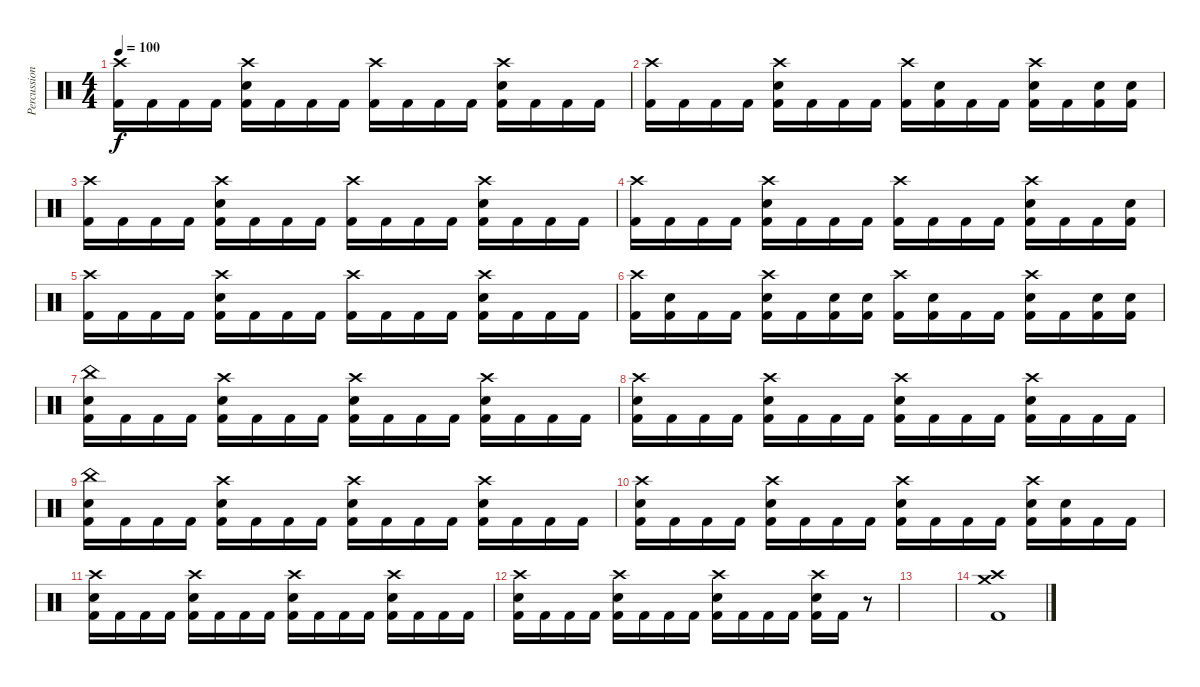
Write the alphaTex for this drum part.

\track ("Percussion" "Percussion") {instrument percussion}
\staff {score}
\articulation defaults
\ts (4 4)
\tempo 100
\clef neutral
\ks c
("Crash high (hit)" "Kick (hit) 2").16{dy f} "Kick (hit) 2".16 "Kick (hit) 2".16 "Kick (hit) 2".16 ("Crash high (hit)" "Electric Snare (hit)" "Kick (hit) 2").16 "Kick (hit) 2".16 "Kick (hit) 2".16 "Kick (hit) 2".16 ("Crash high (hit)" "Kick (hit) 2").16 "Kick (hit) 2".16 "Kick (hit) 2".16 "Kick (hit) 2".16 ("Crash high (hit)" "Electric Snare (hit)" "Kick (hit) 2").16 "Kick (hit) 2".16 "Kick (hit) 2".16 "Kick (hit) 2".16 |
("Crash high (hit)" "Kick (hit) 2").16 "Kick (hit) 2".16 "Kick (hit) 2".16 "Kick (hit) 2".16 ("Crash high (hit)" "Electric Snare (hit)" "Kick (hit) 2").16 "Kick (hit) 2".16 "Kick (hit) 2".16 "Kick (hit) 2".16 ("Crash high (hit)" "Kick (hit) 2").16 ("Electric Snare (hit)" "Kick (hit) 2").16 "Kick (hit) 2".16 "Kick (hit) 2".16 ("Crash high (hit)" "Electric Snare (hit)" "Kick (hit) 2").16 "Kick (hit) 2".16 ("Electric Snare (hit)" "Kick (hit) 2").16 ("Electric Snare (hit)" "Kick (hit) 2").16 |
("Crash high (hit)" "Kick (hit) 2").16 "Kick (hit) 2".16 "Kick (hit) 2".16 "Kick (hit) 2".16 ("Crash high (hit)" "Electric Snare (hit)" "Kick (hit) 2").16 "Kick (hit) 2".16 "Kick (hit) 2".16 "Kick (hit) 2".16 ("Crash high (hit)" "Kick (hit) 2").16 "Kick (hit) 2".16 "Kick (hit) 2".16 "Kick (hit) 2".16 ("Crash high (hit)" "Electric Snare (hit)" "Kick (hit) 2").16 "Kick (hit) 2".16 "Kick (hit) 2".16 "Kick (hit) 2".16 |
("Crash high (hit)" "Kick (hit) 2").16 "Kick (hit) 2".16 "Kick (hit) 2".16 "Kick (hit) 2".16 ("Crash high (hit)" "Electric Snare (hit)" "Kick (hit) 2").16 "Kick (hit) 2".16 "Kick (hit) 2".16 "Kick (hit) 2".16 ("Crash high (hit)" "Kick (hit) 2").16 "Kick (hit) 2".16 "Kick (hit) 2".16 "Kick (hit) 2".16 ("Crash high (hit)" "Electric Snare (hit)" "Kick (hit) 2").16 "Kick (hit) 2".16 "Kick (hit) 2".16 ("Electric Snare (hit)" "Kick (hit) 2").16 |
("Crash high (hit)" "Kick (hit) 2").16 "Kick (hit) 2".16 "Kick (hit) 2".16 "Kick (hit) 2".16 ("Crash high (hit)" "Electric Snare (hit)" "Kick (hit) 2").16 "Kick (hit) 2".16 "Kick (hit) 2".16 "Kick (hit) 2".16 ("Crash high (hit)" "Kick (hit) 2").16 "Kick (hit) 2".16 "Kick (hit) 2".16 "Kick (hit) 2".16 ("Crash high (hit)" "Electric Snare (hit)" "Kick (hit) 2").16 "Kick (hit) 2".16 "Kick (hit) 2".16 "Kick (hit) 2".16 |
("Crash high (hit)" "Kick (hit) 2").16 ("Electric Snare (hit)" "Kick (hit) 2").16 "Kick (hit) 2".16 "Kick (hit) 2".16 ("Crash high (hit)" "Electric Snare (hit)" "Kick (hit) 2").16 "Kick (hit) 2".16 ("Electric Snare (hit)" "Kick (hit) 2").16 ("Electric Snare (hit)" "Kick (hit) 2").16 ("Crash high (hit)" "Kick (hit) 2").16 ("Electric Snare (hit)" "Kick (hit) 2").16 "Kick (hit) 2".16 "Kick (hit) 2".16 ("Crash high (hit)" "Electric Snare (hit)" "Kick (hit) 2").16 "Kick (hit) 2".16 ("Electric Snare (hit)" "Kick (hit) 2").16 ("Electric Snare (hit)" "Kick (hit) 2").16 |
("China (hit)" "Electric Snare (hit)" "Kick (hit) 2").16 "Kick (hit) 2".16 "Kick (hit) 2".16 "Kick (hit) 2".16 ("Crash high (hit)" "Electric Snare (hit)" "Kick (hit) 2").16 "Kick (hit) 2".16 "Kick (hit) 2".16 "Kick (hit) 2".16 ("Crash high (hit)" "Electric Snare (hit)" "Kick (hit) 2").16 "Kick (hit) 2".16 "Kick (hit) 2".16 "Kick (hit) 2".16 ("Crash high (hit)" "Electric Snare (hit)" "Kick (hit) 2").16 "Kick (hit) 2".16 "Kick (hit) 2".16 "Kick (hit) 2".16 |
("Crash high (hit)" "Electric Snare (hit)" "Kick (hit) 2").16 "Kick (hit) 2".16 "Kick (hit) 2".16 "Kick (hit) 2".16 ("Crash high (hit)" "Electric Snare (hit)" "Kick (hit) 2").16 "Kick (hit) 2".16 "Kick (hit) 2".16 "Kick (hit) 2".16 ("Crash high (hit)" "Electric Snare (hit)" "Kick (hit) 2").16 "Kick (hit) 2".16 "Kick (hit) 2".16 "Kick (hit) 2".16 ("Crash high (hit)" "Electric Snare (hit)" "Kick (hit) 2").16 "Kick (hit) 2".16 "Kick (hit) 2".16 "Kick (hit) 2".16 |
("China (hit)" "Electric Snare (hit)" "Kick (hit) 2").16 "Kick (hit) 2".16 "Kick (hit) 2".16 "Kick (hit) 2".16 ("Crash high (hit)" "Electric Snare (hit)" "Kick (hit) 2").16 "Kick (hit) 2".16 "Kick (hit) 2".16 "Kick (hit) 2".16 ("Crash high (hit)" "Electric Snare (hit)" "Kick (hit) 2").16 "Kick (hit) 2".16 "Kick (hit) 2".16 "Kick (hit) 2".16 ("Crash high (hit)" "Electric Snare (hit)" "Kick (hit) 2").16 "Kick (hit) 2".16 "Kick (hit) 2".16 "Kick (hit) 2".16 |
("Crash high (hit)" "Electric Snare (hit)" "Kick (hit) 2").16 "Kick (hit) 2".16 "Kick (hit) 2".16 "Kick (hit) 2".16 ("Crash high (hit)" "Electric Snare (hit)" "Kick (hit) 2").16 "Kick (hit) 2".16 "Kick (hit) 2".16 "Kick (hit) 2".16 ("Crash high (hit)" "Electric Snare (hit)" "Kick (hit) 2").16 "Kick (hit) 2".16 "Kick (hit) 2".16 "Kick (hit) 2".16 ("Crash high (hit)" "Electric Snare (hit)" "Kick (hit) 2").16 ("Electric Snare (hit)" "Kick (hit) 2").16 "Kick (hit) 2".16 "Kick (hit) 2".16 |
("Crash high (hit)" "Electric Snare (hit)" "Kick (hit) 2").16 "Kick (hit) 2".16 "Kick (hit) 2".16 "Kick (hit) 2".16 ("Crash high (hit)" "Electric Snare (hit)" "Kick (hit) 2").16 "Kick (hit) 2".16 "Kick (hit) 2".16 "Kick (hit) 2".16 ("Crash high (hit)" "Electric Snare (hit)" "Kick (hit) 2").16 "Kick (hit) 2".16 "Kick (hit) 2".16 "Kick (hit) 2".16 ("Crash high (hit)" "Electric Snare (hit)" "Kick (hit) 2").16 "Kick (hit) 2".16 "Kick (hit) 2".16 "Kick (hit) 2".16 |
("Crash high (hit)" "Electric Snare (hit)" "Kick (hit) 2").16 "Kick (hit) 2".16 "Kick (hit) 2".16 "Kick (hit) 2".16 ("Crash high (hit)" "Electric Snare (hit)" "Kick (hit) 2").16 "Kick (hit) 2".16 "Kick (hit) 2".16 "Kick (hit) 2".16 ("Crash high (hit)" "Electric Snare (hit)" "Kick (hit) 2").16 "Kick (hit) 2".16 "Kick (hit) 2".16 "Kick (hit) 2".16 ("Crash high (hit)" "Electric Snare (hit)" "Kick (hit) 2").16 "Kick (hit) 2".16 r.8 |
|
("Crash high (hit)" "Crash medium (hit)" "Kick (hit) 2").1
